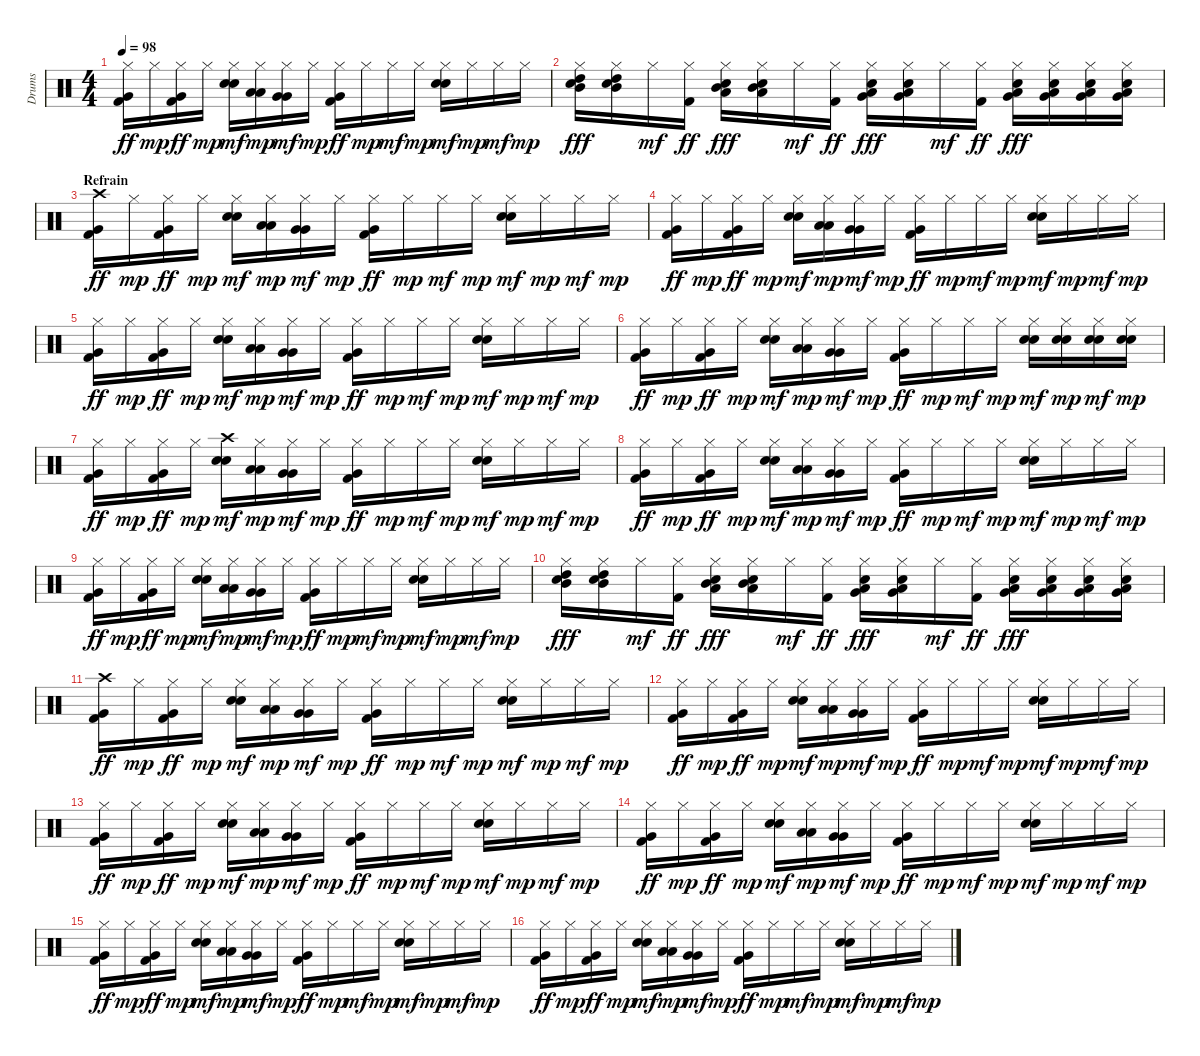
\track ("Drums" "Drums") {instrument percussion}
\staff {score}
\articulation defaults
\ts (4 4)
\tempo 98
\clef neutral
\ks c
("Hi-Hat (closed)" "Very Low Tom (hit)" "Kick (hit) 2").16{dy ff} "Hi-Hat (closed)".16{dy mp} ("Hi-Hat (closed)" "Very Low Tom (hit)" "Kick (hit) 2").16{dy ff} "Hi-Hat (closed)".16{dy mp} ("Hi-Hat (closed)" "Electric Snare (hit)" "Snare (hit) 2").16{dy mf} ("Hi-Hat (closed)" "Low Tom (hit)" "Low Tom (hit)").16{dy mp} ("Hi-Hat (closed)" "Very Low Tom (hit)" "Very Low Tom (hit)").16{dy mf} "Hi-Hat (closed)".16{dy mp} ("Hi-Hat (closed)" "Very Low Tom (hit)" "Kick (hit) 2").16{dy ff} "Hi-Hat (closed)".16{dy mp} "Hi-Hat (closed)".16{dy mf} "Hi-Hat (closed)".16{dy mp} ("Hi-Hat (closed)" "Electric Snare (hit)" "Snare (hit) 2").16{dy mf} "Hi-Hat (closed)".16{dy mp} "Hi-Hat (closed)".16{dy mf} "Hi-Hat (closed)".16{dy mp} |
("Hi-Hat (closed)" "High Tom (hit)" "Mid Tom (hit)" "Electric Snare (hit)").16{dy fff} ("Hi-Hat (closed)" "High Tom (hit)" "Mid Tom (hit)" "Electric Snare (hit)").16 "Hi-Hat (closed)".16{dy mf} ("Hi-Hat (closed)" "Kick (hit) 2").16{dy ff} ("Hi-Hat (closed)" "Mid Tom (hit)" "Low Tom (hit)" "Electric Snare (hit)").16{dy fff} ("Hi-Hat (closed)" "Mid Tom (hit)" "Low Tom (hit)" "Electric Snare (hit)").16 "Hi-Hat (closed)".16{dy mf} ("Hi-Hat (closed)" "Kick (hit) 2").16{dy ff} ("Hi-Hat (closed)" "Low Tom (hit)" "Very Low Tom (hit)" "Electric Snare (hit)").16{dy fff} ("Hi-Hat (closed)" "Low Tom (hit)" "Very Low Tom (hit)" "Electric Snare (hit)").16 "Hi-Hat (closed)".16{dy mf} ("Hi-Hat (closed)" "Kick (hit) 2").16{dy ff} ("Hi-Hat (closed)" "Very Low Tom (hit)" "Low Floor Tom (hit)" "Electric Snare (hit)").16{dy fff} ("Hi-Hat (closed)" "Very Low Tom (hit)" "Low Floor Tom (hit)" "Electric Snare (hit)").16 ("Hi-Hat (closed)" "Very Low Tom (hit)" "Low Floor Tom (hit)" "Electric Snare (hit)").16 ("Hi-Hat (closed)" "Very Low Tom (hit)" "Low Floor Tom (hit)" "Electric Snare (hit)").16 |
\section ("" "Refrain")
("Crash high (hit)" "Very Low Tom (hit)" "Kick (hit) 2").16{dy ff} "Hi-Hat (closed)".16{dy mp} ("Hi-Hat (closed)" "Very Low Tom (hit)" "Kick (hit) 2").16{dy ff} "Hi-Hat (closed)".16{dy mp} ("Hi-Hat (closed)" "Electric Snare (hit)" "Snare (hit) 2").16{dy mf} ("Hi-Hat (closed)" "Low Tom (hit)" "Low Tom (hit)").16{dy mp} ("Hi-Hat (closed)" "Very Low Tom (hit)" "Very Low Tom (hit)").16{dy mf} "Hi-Hat (closed)".16{dy mp} ("Hi-Hat (closed)" "Very Low Tom (hit)" "Kick (hit) 2").16{dy ff} "Hi-Hat (closed)".16{dy mp} "Hi-Hat (closed)".16{dy mf} "Hi-Hat (closed)".16{dy mp} ("Hi-Hat (closed)" "Electric Snare (hit)" "Snare (hit) 2").16{dy mf} "Hi-Hat (closed)".16{dy mp} "Hi-Hat (closed)".16{dy mf} "Hi-Hat (closed)".16{dy mp} |
("Hi-Hat (closed)" "Very Low Tom (hit)" "Kick (hit) 2").16{dy ff} "Hi-Hat (closed)".16{dy mp} ("Hi-Hat (closed)" "Very Low Tom (hit)" "Kick (hit) 2").16{dy ff} "Hi-Hat (closed)".16{dy mp} ("Hi-Hat (closed)" "Electric Snare (hit)" "Snare (hit) 2").16{dy mf} ("Hi-Hat (closed)" "Low Tom (hit)" "Low Tom (hit)").16{dy mp} ("Hi-Hat (closed)" "Very Low Tom (hit)" "Very Low Tom (hit)").16{dy mf} "Hi-Hat (closed)".16{dy mp} ("Hi-Hat (closed)" "Very Low Tom (hit)" "Kick (hit) 2").16{dy ff} "Hi-Hat (closed)".16{dy mp} "Hi-Hat (closed)".16{dy mf} "Hi-Hat (closed)".16{dy mp} ("Hi-Hat (closed)" "Electric Snare (hit)" "Snare (hit) 2").16{dy mf} "Hi-Hat (closed)".16{dy mp} "Hi-Hat (closed)".16{dy mf} "Hi-Hat (closed)".16{dy mp} |
("Hi-Hat (closed)" "Very Low Tom (hit)" "Kick (hit) 2").16{dy ff} "Hi-Hat (closed)".16{dy mp} ("Hi-Hat (closed)" "Very Low Tom (hit)" "Kick (hit) 2").16{dy ff} "Hi-Hat (closed)".16{dy mp} ("Hi-Hat (closed)" "Electric Snare (hit)" "Snare (hit) 2").16{dy mf} ("Hi-Hat (closed)" "Low Tom (hit)" "Low Tom (hit)").16{dy mp} ("Hi-Hat (closed)" "Very Low Tom (hit)" "Very Low Tom (hit)").16{dy mf} "Hi-Hat (closed)".16{dy mp} ("Hi-Hat (closed)" "Very Low Tom (hit)" "Kick (hit) 2").16{dy ff} "Hi-Hat (closed)".16{dy mp} "Hi-Hat (closed)".16{dy mf} "Hi-Hat (closed)".16{dy mp} ("Hi-Hat (closed)" "Electric Snare (hit)" "Snare (hit) 2").16{dy mf} "Hi-Hat (closed)".16{dy mp} "Hi-Hat (closed)".16{dy mf} "Hi-Hat (closed)".16{dy mp} |
("Hi-Hat (closed)" "Very Low Tom (hit)" "Kick (hit) 2").16{dy ff} "Hi-Hat (closed)".16{dy mp} ("Hi-Hat (closed)" "Very Low Tom (hit)" "Kick (hit) 2").16{dy ff} "Hi-Hat (closed)".16{dy mp} ("Hi-Hat (closed)" "Electric Snare (hit)" "Snare (hit) 2").16{dy mf} ("Hi-Hat (closed)" "Low Tom (hit)" "Low Tom (hit)").16{dy mp} ("Hi-Hat (closed)" "Very Low Tom (hit)" "Very Low Tom (hit)").16{dy mf} "Hi-Hat (closed)".16{dy mp} ("Hi-Hat (closed)" "Very Low Tom (hit)" "Kick (hit) 2").16{dy ff} "Hi-Hat (closed)".16{dy mp} "Hi-Hat (closed)".16{dy mf} "Hi-Hat (closed)".16{dy mp} ("Hi-Hat (closed)" "Electric Snare (hit)" "Snare (hit) 2").16{dy mf} ("Hi-Hat (closed)" "Electric Snare (hit)" "Snare (hit) 2").16{dy mp} ("Hi-Hat (closed)" "Electric Snare (hit)" "Snare (hit) 2").16{dy mf} ("Hi-Hat (closed)" "Electric Snare (hit)" "Snare (hit) 2").16{dy mp} |
("Hi-Hat (closed)" "Very Low Tom (hit)" "Kick (hit) 2").16{dy ff} "Hi-Hat (closed)".16{dy mp} ("Hi-Hat (closed)" "Very Low Tom (hit)" "Kick (hit) 2").16{dy ff} "Hi-Hat (closed)".16{dy mp} ("Crash high (hit)" "Electric Snare (hit)" "Snare (hit) 2").16{dy mf} ("Hi-Hat (closed)" "Low Tom (hit)" "Low Tom (hit)").16{dy mp} ("Hi-Hat (closed)" "Very Low Tom (hit)" "Very Low Tom (hit)").16{dy mf} "Hi-Hat (closed)".16{dy mp} ("Hi-Hat (closed)" "Very Low Tom (hit)" "Kick (hit) 2").16{dy ff} "Hi-Hat (closed)".16{dy mp} "Hi-Hat (closed)".16{dy mf} "Hi-Hat (closed)".16{dy mp} ("Hi-Hat (closed)" "Electric Snare (hit)" "Snare (hit) 2").16{dy mf} "Hi-Hat (closed)".16{dy mp} "Hi-Hat (closed)".16{dy mf} "Hi-Hat (closed)".16{dy mp} |
("Hi-Hat (closed)" "Very Low Tom (hit)" "Kick (hit) 2").16{dy ff} "Hi-Hat (closed)".16{dy mp} ("Hi-Hat (closed)" "Very Low Tom (hit)" "Kick (hit) 2").16{dy ff} "Hi-Hat (closed)".16{dy mp} ("Hi-Hat (closed)" "Electric Snare (hit)" "Snare (hit) 2").16{dy mf} ("Hi-Hat (closed)" "Low Tom (hit)" "Low Tom (hit)").16{dy mp} ("Hi-Hat (closed)" "Very Low Tom (hit)" "Very Low Tom (hit)").16{dy mf} "Hi-Hat (closed)".16{dy mp} ("Hi-Hat (closed)" "Very Low Tom (hit)" "Kick (hit) 2").16{dy ff} "Hi-Hat (closed)".16{dy mp} "Hi-Hat (closed)".16{dy mf} "Hi-Hat (closed)".16{dy mp} ("Hi-Hat (closed)" "Electric Snare (hit)" "Snare (hit) 2").16{dy mf} "Hi-Hat (closed)".16{dy mp} "Hi-Hat (closed)".16{dy mf} "Hi-Hat (closed)".16{dy mp} |
("Hi-Hat (closed)" "Very Low Tom (hit)" "Kick (hit) 2").16{dy ff} "Hi-Hat (closed)".16{dy mp} ("Hi-Hat (closed)" "Very Low Tom (hit)" "Kick (hit) 2").16{dy ff} "Hi-Hat (closed)".16{dy mp} ("Hi-Hat (closed)" "Electric Snare (hit)" "Snare (hit) 2").16{dy mf} ("Hi-Hat (closed)" "Low Tom (hit)" "Low Tom (hit)").16{dy mp} ("Hi-Hat (closed)" "Very Low Tom (hit)" "Very Low Tom (hit)").16{dy mf} "Hi-Hat (closed)".16{dy mp} ("Hi-Hat (closed)" "Very Low Tom (hit)" "Kick (hit) 2").16{dy ff} "Hi-Hat (closed)".16{dy mp} "Hi-Hat (closed)".16{dy mf} "Hi-Hat (closed)".16{dy mp} ("Hi-Hat (closed)" "Electric Snare (hit)" "Snare (hit) 2").16{dy mf} "Hi-Hat (closed)".16{dy mp} "Hi-Hat (closed)".16{dy mf} "Hi-Hat (closed)".16{dy mp} |
("Hi-Hat (closed)" "High Tom (hit)" "Mid Tom (hit)" "Electric Snare (hit)").16{dy fff} ("Hi-Hat (closed)" "High Tom (hit)" "Mid Tom (hit)" "Electric Snare (hit)").16 "Hi-Hat (closed)".16{dy mf} ("Hi-Hat (closed)" "Kick (hit) 2").16{dy ff} ("Hi-Hat (closed)" "Mid Tom (hit)" "Low Tom (hit)" "Electric Snare (hit)").16{dy fff} ("Hi-Hat (closed)" "Mid Tom (hit)" "Low Tom (hit)" "Electric Snare (hit)").16 "Hi-Hat (closed)".16{dy mf} ("Hi-Hat (closed)" "Kick (hit) 2").16{dy ff} ("Hi-Hat (closed)" "Low Tom (hit)" "Very Low Tom (hit)" "Electric Snare (hit)").16{dy fff} ("Hi-Hat (closed)" "Low Tom (hit)" "Very Low Tom (hit)" "Electric Snare (hit)").16 "Hi-Hat (closed)".16{dy mf} ("Hi-Hat (closed)" "Kick (hit) 2").16{dy ff} ("Hi-Hat (closed)" "Very Low Tom (hit)" "Low Floor Tom (hit)" "Electric Snare (hit)").16{dy fff} ("Hi-Hat (closed)" "Very Low Tom (hit)" "Low Floor Tom (hit)" "Electric Snare (hit)").16 ("Hi-Hat (closed)" "Very Low Tom (hit)" "Low Floor Tom (hit)" "Electric Snare (hit)").16 ("Hi-Hat (closed)" "Very Low Tom (hit)" "Low Floor Tom (hit)" "Electric Snare (hit)").16 |
("Crash high (hit)" "Very Low Tom (hit)" "Kick (hit) 2").16{dy ff} "Hi-Hat (closed)".16{dy mp} ("Hi-Hat (closed)" "Very Low Tom (hit)" "Kick (hit) 2").16{dy ff} "Hi-Hat (closed)".16{dy mp} ("Hi-Hat (closed)" "Electric Snare (hit)" "Snare (hit) 2").16{dy mf} ("Hi-Hat (closed)" "Low Tom (hit)" "Low Tom (hit)").16{dy mp} ("Hi-Hat (closed)" "Very Low Tom (hit)" "Very Low Tom (hit)").16{dy mf} "Hi-Hat (closed)".16{dy mp} ("Hi-Hat (closed)" "Very Low Tom (hit)" "Kick (hit) 2").16{dy ff} "Hi-Hat (closed)".16{dy mp} "Hi-Hat (closed)".16{dy mf} "Hi-Hat (closed)".16{dy mp} ("Hi-Hat (closed)" "Electric Snare (hit)" "Snare (hit) 2").16{dy mf} "Hi-Hat (closed)".16{dy mp} "Hi-Hat (closed)".16{dy mf} "Hi-Hat (closed)".16{dy mp} |
("Hi-Hat (closed)" "Very Low Tom (hit)" "Kick (hit) 2").16{dy ff} "Hi-Hat (closed)".16{dy mp} ("Hi-Hat (closed)" "Very Low Tom (hit)" "Kick (hit) 2").16{dy ff} "Hi-Hat (closed)".16{dy mp} ("Hi-Hat (closed)" "Electric Snare (hit)" "Snare (hit) 2").16{dy mf} ("Hi-Hat (closed)" "Low Tom (hit)" "Low Tom (hit)").16{dy mp} ("Hi-Hat (closed)" "Very Low Tom (hit)" "Very Low Tom (hit)").16{dy mf} "Hi-Hat (closed)".16{dy mp} ("Hi-Hat (closed)" "Very Low Tom (hit)" "Kick (hit) 2").16{dy ff} "Hi-Hat (closed)".16{dy mp} "Hi-Hat (closed)".16{dy mf} "Hi-Hat (closed)".16{dy mp} ("Hi-Hat (closed)" "Electric Snare (hit)" "Snare (hit) 2").16{dy mf} "Hi-Hat (closed)".16{dy mp} "Hi-Hat (closed)".16{dy mf} "Hi-Hat (closed)".16{dy mp} |
("Hi-Hat (closed)" "Very Low Tom (hit)" "Kick (hit) 2").16{dy ff} "Hi-Hat (closed)".16{dy mp} ("Hi-Hat (closed)" "Very Low Tom (hit)" "Kick (hit) 2").16{dy ff} "Hi-Hat (closed)".16{dy mp} ("Hi-Hat (closed)" "Electric Snare (hit)" "Snare (hit) 2").16{dy mf} ("Hi-Hat (closed)" "Low Tom (hit)" "Low Tom (hit)").16{dy mp} ("Hi-Hat (closed)" "Very Low Tom (hit)" "Very Low Tom (hit)").16{dy mf} "Hi-Hat (closed)".16{dy mp} ("Hi-Hat (closed)" "Very Low Tom (hit)" "Kick (hit) 2").16{dy ff} "Hi-Hat (closed)".16{dy mp} "Hi-Hat (closed)".16{dy mf} "Hi-Hat (closed)".16{dy mp} ("Hi-Hat (closed)" "Electric Snare (hit)" "Snare (hit) 2").16{dy mf} "Hi-Hat (closed)".16{dy mp} "Hi-Hat (closed)".16{dy mf} "Hi-Hat (closed)".16{dy mp} |
("Hi-Hat (closed)" "Very Low Tom (hit)" "Kick (hit) 2").16{dy ff} "Hi-Hat (closed)".16{dy mp} ("Hi-Hat (closed)" "Very Low Tom (hit)" "Kick (hit) 2").16{dy ff} "Hi-Hat (closed)".16{dy mp} ("Hi-Hat (closed)" "Electric Snare (hit)" "Snare (hit) 2").16{dy mf} ("Hi-Hat (closed)" "Low Tom (hit)" "Low Tom (hit)").16{dy mp} ("Hi-Hat (closed)" "Very Low Tom (hit)" "Very Low Tom (hit)").16{dy mf} "Hi-Hat (closed)".16{dy mp} ("Hi-Hat (closed)" "Very Low Tom (hit)" "Kick (hit) 2").16{dy ff} "Hi-Hat (closed)".16{dy mp} "Hi-Hat (closed)".16{dy mf} "Hi-Hat (closed)".16{dy mp} ("Hi-Hat (closed)" "Electric Snare (hit)" "Snare (hit) 2").16{dy mf} "Hi-Hat (closed)".16{dy mp} "Hi-Hat (closed)".16{dy mf} "Hi-Hat (closed)".16{dy mp} |
("Hi-Hat (closed)" "Very Low Tom (hit)" "Kick (hit) 2").16{dy ff} "Hi-Hat (closed)".16{dy mp} ("Hi-Hat (closed)" "Very Low Tom (hit)" "Kick (hit) 2").16{dy ff} "Hi-Hat (closed)".16{dy mp} ("Hi-Hat (closed)" "Electric Snare (hit)" "Snare (hit) 2").16{dy mf} ("Hi-Hat (closed)" "Low Tom (hit)" "Low Tom (hit)").16{dy mp} ("Hi-Hat (closed)" "Very Low Tom (hit)" "Very Low Tom (hit)").16{dy mf} "Hi-Hat (closed)".16{dy mp} ("Hi-Hat (closed)" "Very Low Tom (hit)" "Kick (hit) 2").16{dy ff} "Hi-Hat (closed)".16{dy mp} "Hi-Hat (closed)".16{dy mf} "Hi-Hat (closed)".16{dy mp} ("Hi-Hat (closed)" "Electric Snare (hit)" "Snare (hit) 2").16{dy mf} "Hi-Hat (closed)".16{dy mp} "Hi-Hat (closed)".16{dy mf} "Hi-Hat (closed)".16{dy mp} |
("Hi-Hat (closed)" "Very Low Tom (hit)" "Kick (hit) 2").16{dy ff} "Hi-Hat (closed)".16{dy mp} ("Hi-Hat (closed)" "Very Low Tom (hit)" "Kick (hit) 2").16{dy ff} "Hi-Hat (closed)".16{dy mp} ("Hi-Hat (closed)" "Electric Snare (hit)" "Snare (hit) 2").16{dy mf} ("Hi-Hat (closed)" "Low Tom (hit)" "Low Tom (hit)").16{dy mp} ("Hi-Hat (closed)" "Very Low Tom (hit)" "Very Low Tom (hit)").16{dy mf} "Hi-Hat (closed)".16{dy mp} ("Hi-Hat (closed)" "Very Low Tom (hit)" "Kick (hit) 2").16{dy ff} "Hi-Hat (closed)".16{dy mp} "Hi-Hat (closed)".16{dy mf} "Hi-Hat (closed)".16{dy mp} ("Hi-Hat (closed)" "Electric Snare (hit)" "Snare (hit) 2").16{dy mf} "Hi-Hat (closed)".16{dy mp} "Hi-Hat (closed)".16{dy mf} "Hi-Hat (closed)".16{dy mp}
